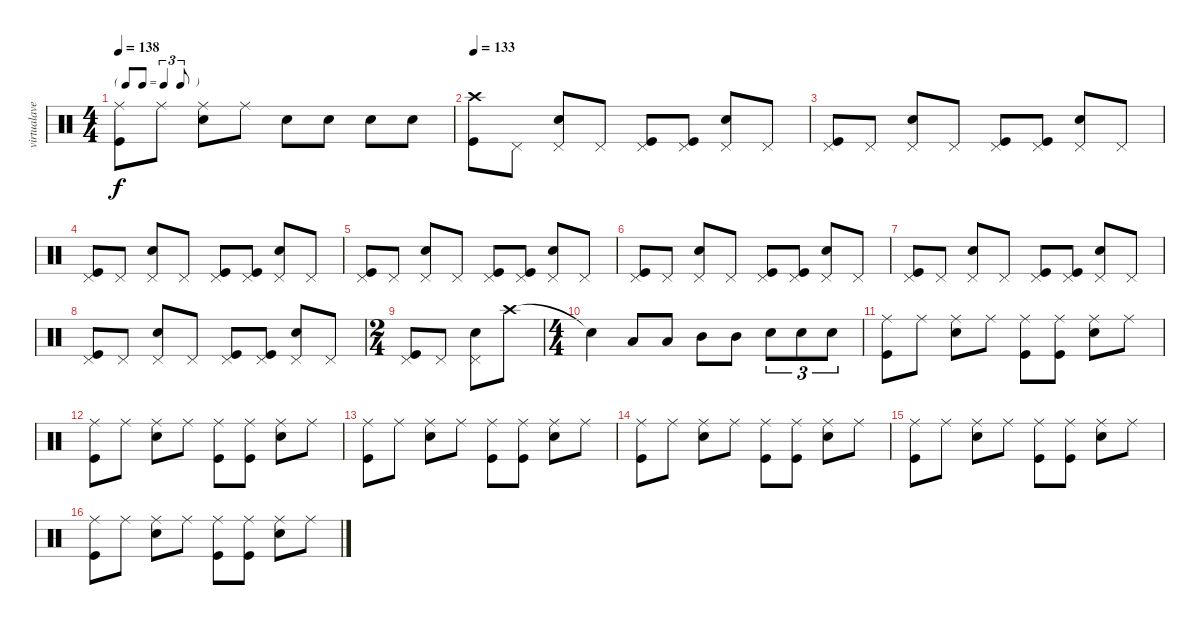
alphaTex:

\track ("virtualave.net" "virtualave") {instrument percussion}
\staff {score}
\articulation defaults
\ts (4 4)
\tf triplet8th
\tempo 138
\clef neutral
\ks c
("Ride (middle)" "Kick (hit)").8{dy f} "Ride (middle)".8 ("Ride (middle)" "Snare (hit) 2").8 "Ride (middle)".8 "Snare (hit) 2".8 "Snare (hit) 2".8 "Snare (hit) 2".8 "Snare (hit) 2".8 |
\tempo 133
("Crash high (hit)" "Kick (hit)").8 "Pedal Hi-Hat (hit)".8 ("Pedal Hi-Hat (hit)" "Snare (hit) 2").8 "Pedal Hi-Hat (hit)".8 ("Pedal Hi-Hat (hit)" "Kick (hit)").8 ("Pedal Hi-Hat (hit)" "Kick (hit)").8 ("Pedal Hi-Hat (hit)" "Snare (hit) 2").8 "Pedal Hi-Hat (hit)".8 |
("Pedal Hi-Hat (hit)" "Kick (hit)").8 "Pedal Hi-Hat (hit)".8 ("Pedal Hi-Hat (hit)" "Snare (hit) 2").8 "Pedal Hi-Hat (hit)".8 ("Pedal Hi-Hat (hit)" "Kick (hit)").8 ("Pedal Hi-Hat (hit)" "Kick (hit)").8 ("Pedal Hi-Hat (hit)" "Snare (hit) 2").8 "Pedal Hi-Hat (hit)".8 |
("Pedal Hi-Hat (hit)" "Kick (hit)").8 "Pedal Hi-Hat (hit)".8 ("Pedal Hi-Hat (hit)" "Snare (hit) 2").8 "Pedal Hi-Hat (hit)".8 ("Pedal Hi-Hat (hit)" "Kick (hit)").8 ("Pedal Hi-Hat (hit)" "Kick (hit)").8 ("Pedal Hi-Hat (hit)" "Snare (hit) 2").8 "Pedal Hi-Hat (hit)".8 |
("Pedal Hi-Hat (hit)" "Kick (hit)").8 "Pedal Hi-Hat (hit)".8 ("Pedal Hi-Hat (hit)" "Snare (hit) 2").8 "Pedal Hi-Hat (hit)".8 ("Pedal Hi-Hat (hit)" "Kick (hit)").8 ("Pedal Hi-Hat (hit)" "Kick (hit)").8 ("Pedal Hi-Hat (hit)" "Snare (hit) 2").8 "Pedal Hi-Hat (hit)".8 |
("Pedal Hi-Hat (hit)" "Kick (hit)").8 "Pedal Hi-Hat (hit)".8 ("Pedal Hi-Hat (hit)" "Snare (hit) 2").8 "Pedal Hi-Hat (hit)".8 ("Pedal Hi-Hat (hit)" "Kick (hit)").8 ("Pedal Hi-Hat (hit)" "Kick (hit)").8 ("Pedal Hi-Hat (hit)" "Snare (hit) 2").8 "Pedal Hi-Hat (hit)".8 |
("Pedal Hi-Hat (hit)" "Kick (hit)").8 "Pedal Hi-Hat (hit)".8 ("Pedal Hi-Hat (hit)" "Snare (hit) 2").8 "Pedal Hi-Hat (hit)".8 ("Pedal Hi-Hat (hit)" "Kick (hit)").8 ("Pedal Hi-Hat (hit)" "Kick (hit)").8 ("Pedal Hi-Hat (hit)" "Snare (hit) 2").8 "Pedal Hi-Hat (hit)".8 |
("Pedal Hi-Hat (hit)" "Kick (hit)").8 "Pedal Hi-Hat (hit)".8 ("Pedal Hi-Hat (hit)" "Snare (hit) 2").8 "Pedal Hi-Hat (hit)".8 ("Pedal Hi-Hat (hit)" "Kick (hit)").8 ("Pedal Hi-Hat (hit)" "Kick (hit)").8 ("Pedal Hi-Hat (hit)" "Snare (hit) 2").8 "Pedal Hi-Hat (hit)".8 |
\ts (2 4)
("Pedal Hi-Hat (hit)" "Kick (hit)").8 "Pedal Hi-Hat (hit)".8 ("Pedal Hi-Hat (hit)" "Snare (hit) 2").8 "Crash high (hit)".8 |
\ts (4 4)
"Snare (hit)"{t}.4 "Low Tom (hit)".8 "Low Tom (hit)".8 "Mid Tom (hit)".8 "Mid Tom (hit)".8 "Snare (hit) 2".8{tu (3 2)} "Snare (hit) 2".8{tu (3 2)} "Snare (hit) 2".8{tu (3 2)} |
("Ride (middle)" "Kick (hit)").8 "Ride (middle)".8 ("Ride (middle)" "Snare (hit) 2").8 "Ride (middle)".8 ("Ride (middle)" "Kick (hit)").8 ("Ride (middle)" "Kick (hit)").8 ("Ride (middle)" "Snare (hit) 2").8 "Ride (middle)".8 |
("Ride (middle)" "Kick (hit)").8 "Ride (middle)".8 ("Ride (middle)" "Snare (hit) 2").8 "Ride (middle)".8 ("Ride (middle)" "Kick (hit)").8 ("Ride (middle)" "Kick (hit)").8 ("Ride (middle)" "Snare (hit) 2").8 "Ride (middle)".8 |
("Ride (middle)" "Kick (hit)").8 "Ride (middle)".8 ("Ride (middle)" "Snare (hit) 2").8 "Ride (middle)".8 ("Ride (middle)" "Kick (hit)").8 ("Ride (middle)" "Kick (hit)").8 ("Ride (middle)" "Snare (hit) 2").8 "Ride (middle)".8 |
("Ride (middle)" "Kick (hit)").8 "Ride (middle)".8 ("Ride (middle)" "Snare (hit) 2").8 "Ride (middle)".8 ("Ride (middle)" "Kick (hit)").8 ("Ride (middle)" "Kick (hit)").8 ("Ride (middle)" "Snare (hit) 2").8 "Ride (middle)".8 |
("Ride (middle)" "Kick (hit)").8 "Ride (middle)".8 ("Ride (middle)" "Snare (hit) 2").8 "Ride (middle)".8 ("Ride (middle)" "Kick (hit)").8 ("Ride (middle)" "Kick (hit)").8 ("Ride (middle)" "Snare (hit) 2").8 "Ride (middle)".8 |
("Ride (middle)" "Kick (hit)").8 "Ride (middle)".8 ("Ride (middle)" "Snare (hit) 2").8 "Ride (middle)".8 ("Ride (middle)" "Kick (hit)").8 ("Ride (middle)" "Kick (hit)").8 ("Ride (middle)" "Snare (hit) 2").8 "Ride (middle)".8
